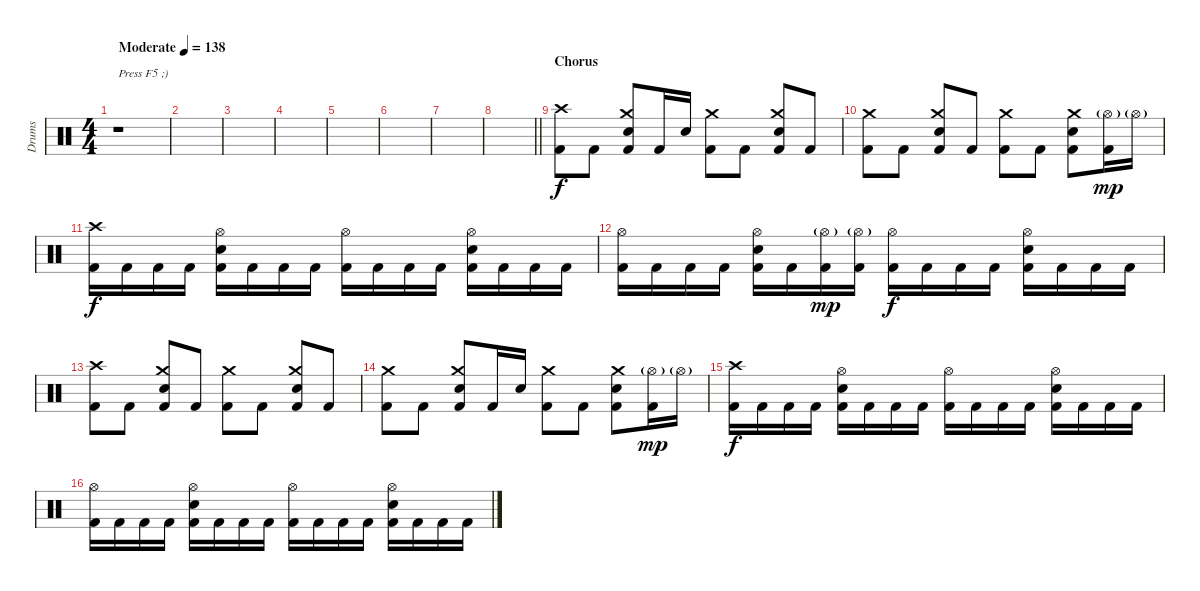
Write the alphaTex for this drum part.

\track ("Drums" "Drums") {instrument percussion}
\staff {score}
\articulation defaults
\ts (4 4)
\tempo (138 "Moderate")
\clef neutral
\ks c
r.1{txt "Press F5 ;)" dy f} |
|
|
|
|
|
|
\barLineRight lightlight
|
\section ("" "Chorus")
("Crash high (hit)" "Kick (hit) 2").8 "Kick (hit) 2".8 ("Crash medium (hit)" "Electric Snare (hit)" "Kick (hit) 2").8 "Kick (hit) 2".16 "Electric Snare (hit)".16 ("Crash medium (hit)" "Kick (hit) 2").8 "Kick (hit) 2".8 ("Crash medium (hit)" "Electric Snare (hit)" "Kick (hit) 2").8 "Kick (hit) 2".8 |
("Crash medium (hit)" "Kick (hit) 2").8 "Kick (hit) 2".8 ("Crash medium (hit)" "Electric Snare (hit)" "Kick (hit) 2").8 "Kick (hit) 2".8 ("Crash medium (hit)" "Kick (hit) 2").8 "Kick (hit) 2".8 ("Crash medium (hit)" "Electric Snare (hit)" "Kick (hit) 2").8 ("Hi-Hat (open)"{g} "Kick (hit) 2").16{dy mp} "Hi-Hat (open)"{g}.16 |
("Crash high (hit)" "Kick (hit) 2").16{dy f} "Kick (hit) 2".16 "Kick (hit) 2".16 "Kick (hit) 2".16 ("Hi-Hat (open)" "Electric Snare (hit)" "Kick (hit) 2").16 "Kick (hit) 2".16 "Kick (hit) 2".16 "Kick (hit) 2".16 ("Hi-Hat (open)" "Kick (hit) 2").16 "Kick (hit) 2".16 "Kick (hit) 2".16 "Kick (hit) 2".16 ("Hi-Hat (open)" "Electric Snare (hit)" "Kick (hit) 2").16 "Kick (hit) 2".16 "Kick (hit) 2".16 "Kick (hit) 2".16 |
("Hi-Hat (open)" "Kick (hit) 2").16 "Kick (hit) 2".16 "Kick (hit) 2".16 "Kick (hit) 2".16 ("Hi-Hat (open)" "Electric Snare (hit)" "Kick (hit) 2").16 "Kick (hit) 2".16 ("Hi-Hat (open)"{g} "Kick (hit) 2").16{dy mp} ("Hi-Hat (open)"{g} "Kick (hit) 2").16 ("Hi-Hat (open)" "Kick (hit) 2").16{dy f} "Kick (hit) 2".16 "Kick (hit) 2".16 "Kick (hit) 2".16 ("Hi-Hat (open)" "Electric Snare (hit)" "Kick (hit) 2").16 "Kick (hit) 2".16 "Kick (hit) 2".16 "Kick (hit) 2".16 |
("Crash high (hit)" "Kick (hit) 2").8 "Kick (hit) 2".8 ("Crash medium (hit)" "Electric Snare (hit)" "Kick (hit) 2").8 "Kick (hit) 2".8 ("Crash medium (hit)" "Kick (hit) 2").8 "Kick (hit) 2".8 ("Crash medium (hit)" "Electric Snare (hit)" "Kick (hit) 2").8 "Kick (hit) 2".8 |
("Crash medium (hit)" "Kick (hit) 2").8 "Kick (hit) 2".8 ("Crash medium (hit)" "Electric Snare (hit)" "Kick (hit) 2").8 "Kick (hit) 2".16 "Electric Snare (hit)".16 ("Crash medium (hit)" "Kick (hit) 2").8 "Kick (hit) 2".8 ("Crash medium (hit)" "Electric Snare (hit)" "Kick (hit) 2").8 ("Hi-Hat (open)"{g} "Kick (hit) 2").16{dy mp} "Hi-Hat (open)"{g}.16 |
("Crash high (hit)" "Kick (hit) 2").16{dy f} "Kick (hit) 2".16 "Kick (hit) 2".16 "Kick (hit) 2".16 ("Hi-Hat (open)" "Electric Snare (hit)" "Kick (hit) 2").16 "Kick (hit) 2".16 "Kick (hit) 2".16 "Kick (hit) 2".16 ("Hi-Hat (open)" "Kick (hit) 2").16 "Kick (hit) 2".16 "Kick (hit) 2".16 "Kick (hit) 2".16 ("Hi-Hat (open)" "Electric Snare (hit)" "Kick (hit) 2").16 "Kick (hit) 2".16 "Kick (hit) 2".16 "Kick (hit) 2".16 |
("Hi-Hat (open)" "Kick (hit) 2").16 "Kick (hit) 2".16 "Kick (hit) 2".16 "Kick (hit) 2".16 ("Hi-Hat (open)" "Electric Snare (hit)" "Kick (hit) 2").16 "Kick (hit) 2".16 "Kick (hit) 2".16 "Kick (hit) 2".16 ("Hi-Hat (open)" "Kick (hit) 2").16 "Kick (hit) 2".16 "Kick (hit) 2".16 "Kick (hit) 2".16 ("Hi-Hat (open)" "Electric Snare (hit)" "Kick (hit) 2").16 "Kick (hit) 2".16 "Kick (hit) 2".16 "Kick (hit) 2".16
